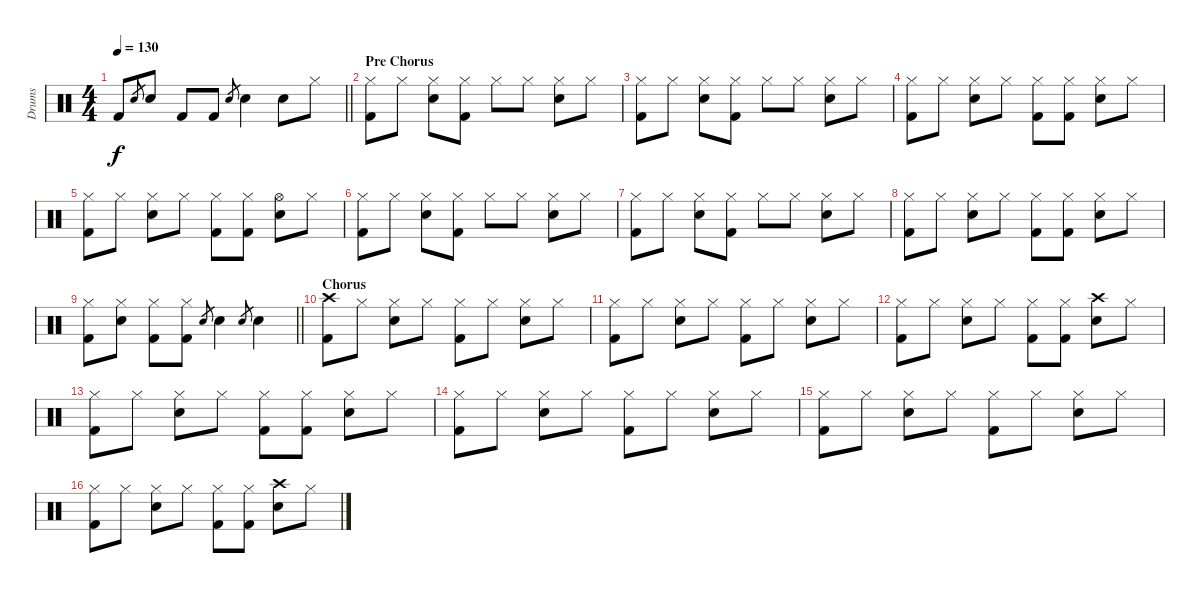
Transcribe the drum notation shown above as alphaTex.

\track ("Drums" "Drums") {instrument percussion}
\staff {score}
\articulation defaults
\ts (4 4)
\tempo 130
\clef neutral
\barLineRight lightlight
\ks c "Kick (hit) 2".8{dy f} "Snare (hit) 2".8{gr} "Snare (hit) 2".8 "Kick (hit) 2".8 "Kick (hit) 2".8 "Snare (hit) 2".8{gr} "Snare (hit) 2".4 "Snare (hit) 2".8 "Hi-Hat (closed)".8
|
\section ("" "Pre Chorus")
("Hi-Hat (closed)" "Kick (hit) 2").8 "Hi-Hat (closed)".8 ("Hi-Hat (closed)" "Snare (hit) 2").8 ("Hi-Hat (closed)" "Kick (hit) 2").8 "Hi-Hat (closed)".8 "Hi-Hat (closed)".8 ("Hi-Hat (closed)" "Snare (hit) 2").8 "Hi-Hat (closed)".8 |
("Hi-Hat (closed)" "Kick (hit) 2").8 "Hi-Hat (closed)".8 ("Hi-Hat (closed)" "Snare (hit) 2").8 ("Hi-Hat (closed)" "Kick (hit) 2").8 "Hi-Hat (closed)".8 "Hi-Hat (closed)".8 ("Hi-Hat (closed)" "Snare (hit) 2").8 "Hi-Hat (closed)".8 |
("Hi-Hat (closed)" "Kick (hit) 2").8 "Hi-Hat (closed)".8 ("Hi-Hat (closed)" "Snare (hit) 2").8 "Hi-Hat (closed)".8 ("Hi-Hat (closed)" "Kick (hit) 2").8 ("Hi-Hat (closed)" "Kick (hit) 2").8 ("Hi-Hat (closed)" "Snare (hit) 2").8 "Hi-Hat (closed)".8 |
("Hi-Hat (closed)" "Kick (hit) 2").8 "Hi-Hat (closed)".8 ("Hi-Hat (closed)" "Snare (hit) 2").8 "Hi-Hat (closed)".8 ("Hi-Hat (closed)" "Kick (hit) 2").8 ("Hi-Hat (closed)" "Kick (hit) 2").8 ("Hi-Hat (open)" "Snare (hit) 2").8 "Hi-Hat (closed)".8 |
("Hi-Hat (closed)" "Kick (hit) 2").8 "Hi-Hat (closed)".8 ("Hi-Hat (closed)" "Snare (hit) 2").8 ("Hi-Hat (closed)" "Kick (hit) 2").8 "Hi-Hat (closed)".8 "Hi-Hat (closed)".8 ("Hi-Hat (closed)" "Snare (hit) 2").8 "Hi-Hat (closed)".8 |
("Hi-Hat (closed)" "Kick (hit) 2").8 "Hi-Hat (closed)".8 ("Hi-Hat (closed)" "Snare (hit) 2").8 ("Hi-Hat (closed)" "Kick (hit) 2").8 "Hi-Hat (closed)".8 "Hi-Hat (closed)".8 ("Hi-Hat (closed)" "Snare (hit) 2").8 "Hi-Hat (closed)".8 |
("Hi-Hat (closed)" "Kick (hit) 2").8 "Hi-Hat (closed)".8 ("Hi-Hat (closed)" "Snare (hit) 2").8 "Hi-Hat (closed)".8 ("Hi-Hat (closed)" "Kick (hit) 2").8 ("Hi-Hat (closed)" "Kick (hit) 2").8 ("Hi-Hat (closed)" "Snare (hit) 2").8 "Hi-Hat (closed)".8 |
\barLineRight lightlight
("Hi-Hat (closed)" "Kick (hit) 2").8 ("Hi-Hat (closed)" "Snare (hit) 2").8 ("Hi-Hat (closed)" "Kick (hit) 2").8 ("Hi-Hat (closed)" "Kick (hit) 2").8 "Snare (hit) 2".8{gr} "Snare (hit) 2".4 "Snare (hit) 2".8{gr} "Snare (hit) 2".4 |
\section ("" "Chorus")
("Crash high (hit)" "Kick (hit) 2").8 "Hi-Hat (closed)".8 ("Hi-Hat (closed)" "Snare (hit) 2").8 "Hi-Hat (closed)".8 ("Hi-Hat (closed)" "Kick (hit) 2").8 "Hi-Hat (closed)".8 ("Hi-Hat (closed)" "Snare (hit) 2").8 "Hi-Hat (closed)".8 |
("Hi-Hat (closed)" "Kick (hit) 2").8 "Hi-Hat (closed)".8 ("Hi-Hat (closed)" "Snare (hit) 2").8 "Hi-Hat (closed)".8 ("Hi-Hat (closed)" "Kick (hit) 2").8 "Hi-Hat (closed)".8 ("Hi-Hat (closed)" "Snare (hit) 2").8 "Hi-Hat (closed)".8 |
("Hi-Hat (closed)" "Kick (hit) 2").8 "Hi-Hat (closed)".8 ("Hi-Hat (closed)" "Snare (hit) 2").8 "Hi-Hat (closed)".8 ("Hi-Hat (closed)" "Kick (hit) 2").8 ("Hi-Hat (closed)" "Kick (hit) 2").8 ("Crash high (hit)" "Snare (hit) 2").8 "Hi-Hat (closed)".8 |
("Hi-Hat (closed)" "Kick (hit) 2").8 "Hi-Hat (closed)".8 ("Hi-Hat (closed)" "Snare (hit) 2").8 "Hi-Hat (closed)".8 ("Hi-Hat (closed)" "Kick (hit) 2").8 ("Hi-Hat (closed)" "Kick (hit) 2").8 ("Hi-Hat (closed)" "Snare (hit) 2").8 "Hi-Hat (closed)".8 |
("Hi-Hat (closed)" "Kick (hit) 2").8 "Hi-Hat (closed)".8 ("Hi-Hat (closed)" "Snare (hit) 2").8 "Hi-Hat (closed)".8 ("Hi-Hat (closed)" "Kick (hit) 2").8 "Hi-Hat (closed)".8 ("Hi-Hat (closed)" "Snare (hit) 2").8 "Hi-Hat (closed)".8 |
("Hi-Hat (closed)" "Kick (hit) 2").8 "Hi-Hat (closed)".8 ("Hi-Hat (closed)" "Snare (hit) 2").8 "Hi-Hat (closed)".8 ("Hi-Hat (closed)" "Kick (hit) 2").8 "Hi-Hat (closed)".8 ("Hi-Hat (closed)" "Snare (hit) 2").8 "Hi-Hat (closed)".8 |
("Hi-Hat (closed)" "Kick (hit) 2").8 "Hi-Hat (closed)".8 ("Hi-Hat (closed)" "Snare (hit) 2").8 "Hi-Hat (closed)".8 ("Hi-Hat (closed)" "Kick (hit) 2").8 ("Hi-Hat (closed)" "Kick (hit) 2").8 ("Crash high (hit)" "Snare (hit) 2").8 "Hi-Hat (closed)".8
